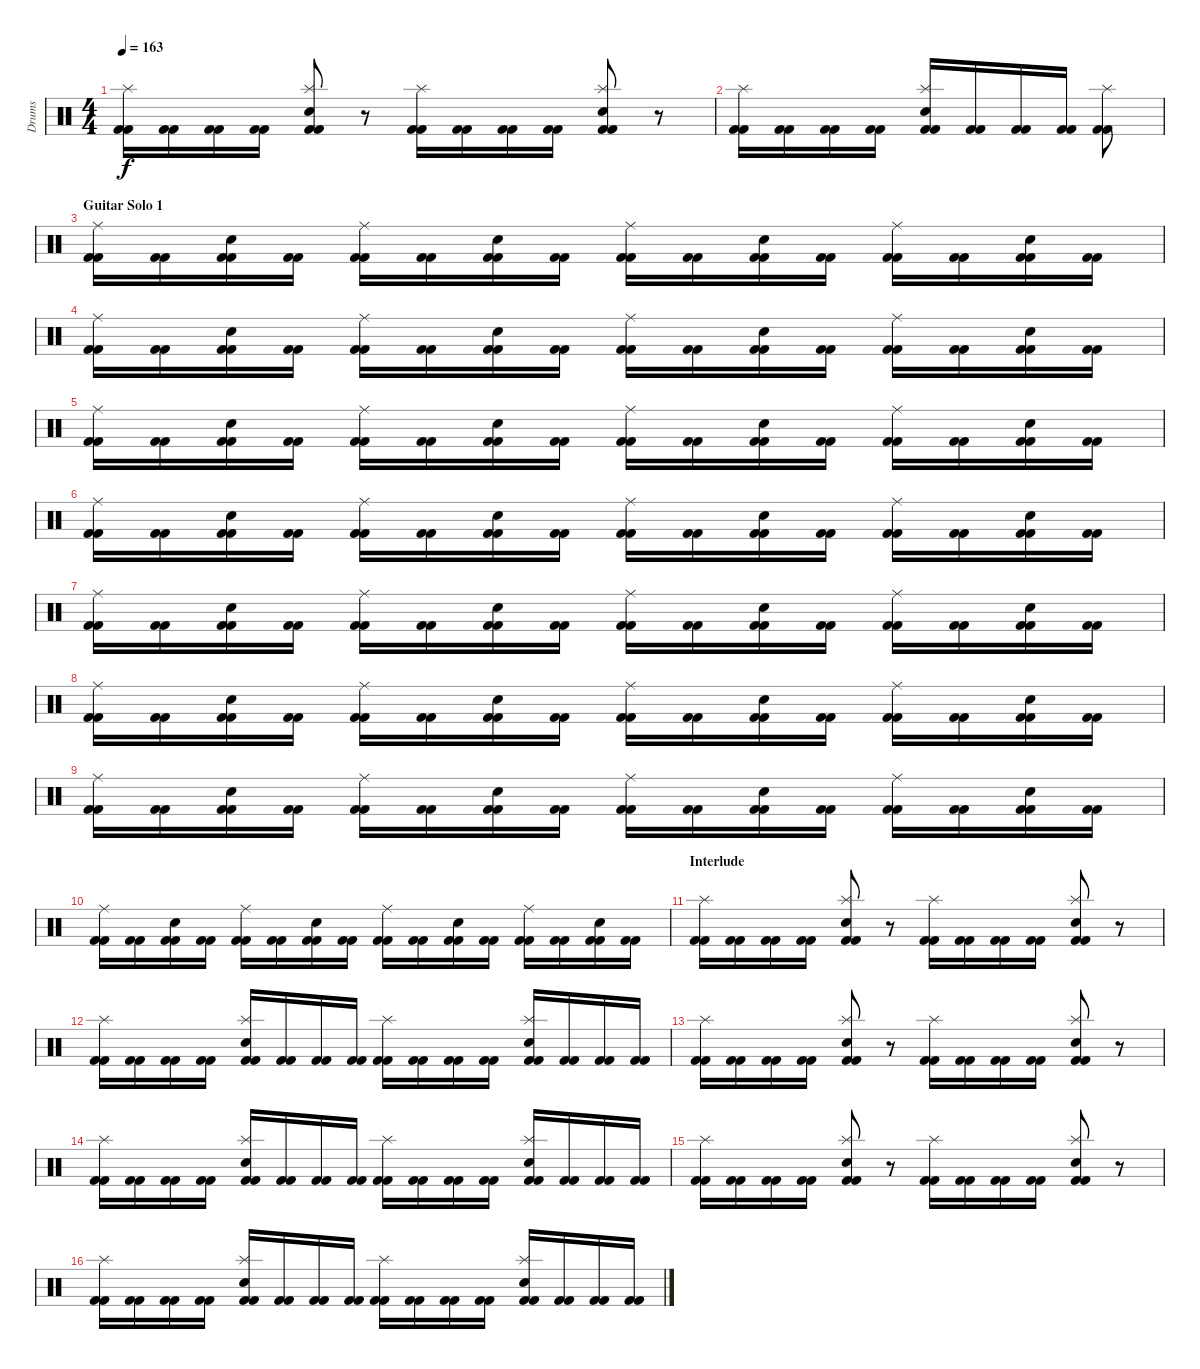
\track ("Drums" "Drums") {instrument percussion}
\staff {score}
\articulation defaults
\ts (4 4)
\tempo 163
\clef neutral
\ks c
("Kick (hit) 2" "Kick (hit) 2" "Splash (hit)").16{dy f} ("Kick (hit) 2" "Kick (hit) 2").16 ("Kick (hit) 2" "Kick (hit) 2").16 ("Kick (hit) 2" "Kick (hit) 2").16 ("Kick (hit) 2" "Kick (hit) 2" "Snare (hit) 2" "Splash (hit)").8 r.8 ("Kick (hit) 2" "Kick (hit) 2" "Splash (hit)").16 ("Kick (hit) 2" "Kick (hit) 2").16 ("Kick (hit) 2" "Kick (hit) 2").16 ("Kick (hit) 2" "Kick (hit) 2").16 ("Kick (hit) 2" "Kick (hit) 2" "Snare (hit) 2" "Splash (hit)").8 r.8 |
("Kick (hit) 2" "Kick (hit) 2" "Splash (hit)").16 ("Kick (hit) 2" "Kick (hit) 2").16 ("Kick (hit) 2" "Kick (hit) 2").16 ("Kick (hit) 2" "Kick (hit) 2").16 ("Kick (hit) 2" "Kick (hit) 2" "Snare (hit) 2" "Splash (hit)").16 ("Kick (hit) 2" "Kick (hit) 2").16 ("Kick (hit) 2" "Kick (hit) 2").16 ("Kick (hit) 2" "Kick (hit) 2").16 ("Kick (hit) 2" "Kick (hit) 2" "Splash (hit)").8 |
\section ("" "Guitar Solo 1")
("Kick (hit) 2" "Kick (hit) 2" "Ride (middle)").16 ("Kick (hit) 2" "Kick (hit) 2").16 ("Kick (hit) 2" "Kick (hit) 2" "Snare (hit) 2").16 ("Kick (hit) 2" "Kick (hit) 2").16 ("Kick (hit) 2" "Kick (hit) 2" "Ride (middle)").16 ("Kick (hit) 2" "Kick (hit) 2").16 ("Kick (hit) 2" "Kick (hit) 2" "Snare (hit) 2").16 ("Kick (hit) 2" "Kick (hit) 2").16 ("Kick (hit) 2" "Kick (hit) 2" "Ride (middle)").16 ("Kick (hit) 2" "Kick (hit) 2").16 ("Kick (hit) 2" "Kick (hit) 2" "Snare (hit) 2").16 ("Kick (hit) 2" "Kick (hit) 2").16 ("Kick (hit) 2" "Kick (hit) 2" "Ride (middle)").16 ("Kick (hit) 2" "Kick (hit) 2").16 ("Kick (hit) 2" "Kick (hit) 2" "Snare (hit) 2").16 ("Kick (hit) 2" "Kick (hit) 2").16 |
("Kick (hit) 2" "Kick (hit) 2" "Ride (middle)").16 ("Kick (hit) 2" "Kick (hit) 2").16 ("Kick (hit) 2" "Kick (hit) 2" "Snare (hit) 2").16 ("Kick (hit) 2" "Kick (hit) 2").16 ("Kick (hit) 2" "Kick (hit) 2" "Ride (middle)").16 ("Kick (hit) 2" "Kick (hit) 2").16 ("Kick (hit) 2" "Kick (hit) 2" "Snare (hit) 2").16 ("Kick (hit) 2" "Kick (hit) 2").16 ("Kick (hit) 2" "Kick (hit) 2" "Ride (middle)").16 ("Kick (hit) 2" "Kick (hit) 2").16 ("Kick (hit) 2" "Kick (hit) 2" "Snare (hit) 2").16 ("Kick (hit) 2" "Kick (hit) 2").16 ("Kick (hit) 2" "Kick (hit) 2" "Ride (middle)").16 ("Kick (hit) 2" "Kick (hit) 2").16 ("Kick (hit) 2" "Kick (hit) 2" "Snare (hit) 2").16 ("Kick (hit) 2" "Kick (hit) 2").16 |
("Kick (hit) 2" "Kick (hit) 2" "Ride (middle)").16 ("Kick (hit) 2" "Kick (hit) 2").16 ("Kick (hit) 2" "Kick (hit) 2" "Snare (hit) 2").16 ("Kick (hit) 2" "Kick (hit) 2").16 ("Kick (hit) 2" "Kick (hit) 2" "Ride (middle)").16 ("Kick (hit) 2" "Kick (hit) 2").16 ("Kick (hit) 2" "Kick (hit) 2" "Snare (hit) 2").16 ("Kick (hit) 2" "Kick (hit) 2").16 ("Kick (hit) 2" "Kick (hit) 2" "Ride (middle)").16 ("Kick (hit) 2" "Kick (hit) 2").16 ("Kick (hit) 2" "Kick (hit) 2" "Snare (hit) 2").16 ("Kick (hit) 2" "Kick (hit) 2").16 ("Kick (hit) 2" "Kick (hit) 2" "Ride (middle)").16 ("Kick (hit) 2" "Kick (hit) 2").16 ("Kick (hit) 2" "Kick (hit) 2" "Snare (hit) 2").16 ("Kick (hit) 2" "Kick (hit) 2").16 |
("Kick (hit) 2" "Kick (hit) 2" "Ride (middle)").16 ("Kick (hit) 2" "Kick (hit) 2").16 ("Kick (hit) 2" "Kick (hit) 2" "Snare (hit) 2").16 ("Kick (hit) 2" "Kick (hit) 2").16 ("Kick (hit) 2" "Kick (hit) 2" "Ride (middle)").16 ("Kick (hit) 2" "Kick (hit) 2").16 ("Kick (hit) 2" "Kick (hit) 2" "Snare (hit) 2").16 ("Kick (hit) 2" "Kick (hit) 2").16 ("Kick (hit) 2" "Kick (hit) 2" "Ride (middle)").16 ("Kick (hit) 2" "Kick (hit) 2").16 ("Kick (hit) 2" "Kick (hit) 2" "Snare (hit) 2").16 ("Kick (hit) 2" "Kick (hit) 2").16 ("Kick (hit) 2" "Kick (hit) 2" "Ride (middle)").16 ("Kick (hit) 2" "Kick (hit) 2").16 ("Kick (hit) 2" "Kick (hit) 2" "Snare (hit) 2").16 ("Kick (hit) 2" "Kick (hit) 2").16 |
("Kick (hit) 2" "Kick (hit) 2" "Ride (middle)").16 ("Kick (hit) 2" "Kick (hit) 2").16 ("Kick (hit) 2" "Kick (hit) 2" "Snare (hit) 2").16 ("Kick (hit) 2" "Kick (hit) 2").16 ("Kick (hit) 2" "Kick (hit) 2" "Ride (middle)").16 ("Kick (hit) 2" "Kick (hit) 2").16 ("Kick (hit) 2" "Kick (hit) 2" "Snare (hit) 2").16 ("Kick (hit) 2" "Kick (hit) 2").16 ("Kick (hit) 2" "Kick (hit) 2" "Ride (middle)").16 ("Kick (hit) 2" "Kick (hit) 2").16 ("Kick (hit) 2" "Kick (hit) 2" "Snare (hit) 2").16 ("Kick (hit) 2" "Kick (hit) 2").16 ("Kick (hit) 2" "Kick (hit) 2" "Ride (middle)").16 ("Kick (hit) 2" "Kick (hit) 2").16 ("Kick (hit) 2" "Kick (hit) 2" "Snare (hit) 2").16 ("Kick (hit) 2" "Kick (hit) 2").16 |
("Kick (hit) 2" "Kick (hit) 2" "Ride (middle)").16 ("Kick (hit) 2" "Kick (hit) 2").16 ("Kick (hit) 2" "Kick (hit) 2" "Snare (hit) 2").16 ("Kick (hit) 2" "Kick (hit) 2").16 ("Kick (hit) 2" "Kick (hit) 2" "Ride (middle)").16 ("Kick (hit) 2" "Kick (hit) 2").16 ("Kick (hit) 2" "Kick (hit) 2" "Snare (hit) 2").16 ("Kick (hit) 2" "Kick (hit) 2").16 ("Kick (hit) 2" "Kick (hit) 2" "Ride (middle)").16 ("Kick (hit) 2" "Kick (hit) 2").16 ("Kick (hit) 2" "Kick (hit) 2" "Snare (hit) 2").16 ("Kick (hit) 2" "Kick (hit) 2").16 ("Kick (hit) 2" "Kick (hit) 2" "Ride (middle)").16 ("Kick (hit) 2" "Kick (hit) 2").16 ("Kick (hit) 2" "Kick (hit) 2" "Snare (hit) 2").16 ("Kick (hit) 2" "Kick (hit) 2").16 |
("Kick (hit) 2" "Kick (hit) 2" "Ride (middle)").16 ("Kick (hit) 2" "Kick (hit) 2").16 ("Kick (hit) 2" "Kick (hit) 2" "Snare (hit) 2").16 ("Kick (hit) 2" "Kick (hit) 2").16 ("Kick (hit) 2" "Kick (hit) 2" "Ride (middle)").16 ("Kick (hit) 2" "Kick (hit) 2").16 ("Kick (hit) 2" "Kick (hit) 2" "Snare (hit) 2").16 ("Kick (hit) 2" "Kick (hit) 2").16 ("Kick (hit) 2" "Kick (hit) 2" "Ride (middle)").16 ("Kick (hit) 2" "Kick (hit) 2").16 ("Kick (hit) 2" "Kick (hit) 2" "Snare (hit) 2").16 ("Kick (hit) 2" "Kick (hit) 2").16 ("Kick (hit) 2" "Kick (hit) 2" "Ride (middle)").16 ("Kick (hit) 2" "Kick (hit) 2").16 ("Kick (hit) 2" "Kick (hit) 2" "Snare (hit) 2").16 ("Kick (hit) 2" "Kick (hit) 2").16 |
("Kick (hit) 2" "Kick (hit) 2" "Ride (middle)").16 ("Kick (hit) 2" "Kick (hit) 2").16 ("Kick (hit) 2" "Kick (hit) 2" "Snare (hit) 2").16 ("Kick (hit) 2" "Kick (hit) 2").16 ("Kick (hit) 2" "Kick (hit) 2" "Ride (middle)").16 ("Kick (hit) 2" "Kick (hit) 2").16 ("Kick (hit) 2" "Kick (hit) 2" "Snare (hit) 2").16 ("Kick (hit) 2" "Kick (hit) 2").16 ("Kick (hit) 2" "Kick (hit) 2" "Ride (middle)").16 ("Kick (hit) 2" "Kick (hit) 2").16 ("Kick (hit) 2" "Kick (hit) 2" "Snare (hit) 2").16 ("Kick (hit) 2" "Kick (hit) 2").16 ("Kick (hit) 2" "Kick (hit) 2" "Ride (middle)").16 ("Kick (hit) 2" "Kick (hit) 2").16 ("Kick (hit) 2" "Kick (hit) 2" "Snare (hit) 2").16 ("Kick (hit) 2" "Kick (hit) 2").16 |
\section ("" "Interlude")
("Kick (hit) 2" "Kick (hit) 2" "Splash (hit)").16 ("Kick (hit) 2" "Kick (hit) 2").16 ("Kick (hit) 2" "Kick (hit) 2").16 ("Kick (hit) 2" "Kick (hit) 2").16 ("Kick (hit) 2" "Kick (hit) 2" "Snare (hit) 2" "Splash (hit)").8 r.8 ("Kick (hit) 2" "Kick (hit) 2" "Splash (hit)").16 ("Kick (hit) 2" "Kick (hit) 2").16 ("Kick (hit) 2" "Kick (hit) 2").16 ("Kick (hit) 2" "Kick (hit) 2").16 ("Kick (hit) 2" "Kick (hit) 2" "Snare (hit) 2" "Splash (hit)").8 r.8 |
("Kick (hit) 2" "Kick (hit) 2" "Splash (hit)").16 ("Kick (hit) 2" "Kick (hit) 2").16 ("Kick (hit) 2" "Kick (hit) 2").16 ("Kick (hit) 2" "Kick (hit) 2").16 ("Kick (hit) 2" "Kick (hit) 2" "Snare (hit) 2" "Splash (hit)").16 ("Kick (hit) 2" "Kick (hit) 2").16 ("Kick (hit) 2" "Kick (hit) 2").16 ("Kick (hit) 2" "Kick (hit) 2").16 ("Kick (hit) 2" "Kick (hit) 2" "Splash (hit)").16 ("Kick (hit) 2" "Kick (hit) 2").16 ("Kick (hit) 2" "Kick (hit) 2").16 ("Kick (hit) 2" "Kick (hit) 2").16 ("Kick (hit) 2" "Kick (hit) 2" "Snare (hit) 2" "Splash (hit)").16 ("Kick (hit) 2" "Kick (hit) 2").16 ("Kick (hit) 2" "Kick (hit) 2").16 ("Kick (hit) 2" "Kick (hit) 2").16 |
("Kick (hit) 2" "Kick (hit) 2" "Splash (hit)").16 ("Kick (hit) 2" "Kick (hit) 2").16 ("Kick (hit) 2" "Kick (hit) 2").16 ("Kick (hit) 2" "Kick (hit) 2").16 ("Kick (hit) 2" "Kick (hit) 2" "Snare (hit) 2" "Splash (hit)").8 r.8 ("Kick (hit) 2" "Kick (hit) 2" "Splash (hit)").16 ("Kick (hit) 2" "Kick (hit) 2").16 ("Kick (hit) 2" "Kick (hit) 2").16 ("Kick (hit) 2" "Kick (hit) 2").16 ("Kick (hit) 2" "Kick (hit) 2" "Snare (hit) 2" "Splash (hit)").8 r.8 |
("Kick (hit) 2" "Kick (hit) 2" "Splash (hit)").16 ("Kick (hit) 2" "Kick (hit) 2").16 ("Kick (hit) 2" "Kick (hit) 2").16 ("Kick (hit) 2" "Kick (hit) 2").16 ("Kick (hit) 2" "Kick (hit) 2" "Snare (hit) 2" "Splash (hit)").16 ("Kick (hit) 2" "Kick (hit) 2").16 ("Kick (hit) 2" "Kick (hit) 2").16 ("Kick (hit) 2" "Kick (hit) 2").16 ("Kick (hit) 2" "Kick (hit) 2" "Splash (hit)").16 ("Kick (hit) 2" "Kick (hit) 2").16 ("Kick (hit) 2" "Kick (hit) 2").16 ("Kick (hit) 2" "Kick (hit) 2").16 ("Kick (hit) 2" "Kick (hit) 2" "Snare (hit) 2" "Splash (hit)").16 ("Kick (hit) 2" "Kick (hit) 2").16 ("Kick (hit) 2" "Kick (hit) 2").16 ("Kick (hit) 2" "Kick (hit) 2").16 |
("Kick (hit) 2" "Kick (hit) 2" "Splash (hit)").16 ("Kick (hit) 2" "Kick (hit) 2").16 ("Kick (hit) 2" "Kick (hit) 2").16 ("Kick (hit) 2" "Kick (hit) 2").16 ("Kick (hit) 2" "Kick (hit) 2" "Snare (hit) 2" "Splash (hit)").8 r.8 ("Kick (hit) 2" "Kick (hit) 2" "Splash (hit)").16 ("Kick (hit) 2" "Kick (hit) 2").16 ("Kick (hit) 2" "Kick (hit) 2").16 ("Kick (hit) 2" "Kick (hit) 2").16 ("Kick (hit) 2" "Kick (hit) 2" "Snare (hit) 2" "Splash (hit)").8 r.8 |
("Kick (hit) 2" "Kick (hit) 2" "Splash (hit)").16 ("Kick (hit) 2" "Kick (hit) 2").16 ("Kick (hit) 2" "Kick (hit) 2").16 ("Kick (hit) 2" "Kick (hit) 2").16 ("Kick (hit) 2" "Kick (hit) 2" "Snare (hit) 2" "Splash (hit)").16 ("Kick (hit) 2" "Kick (hit) 2").16 ("Kick (hit) 2" "Kick (hit) 2").16 ("Kick (hit) 2" "Kick (hit) 2").16 ("Kick (hit) 2" "Kick (hit) 2" "Splash (hit)").16 ("Kick (hit) 2" "Kick (hit) 2").16 ("Kick (hit) 2" "Kick (hit) 2").16 ("Kick (hit) 2" "Kick (hit) 2").16 ("Kick (hit) 2" "Kick (hit) 2" "Snare (hit) 2" "Splash (hit)").16 ("Kick (hit) 2" "Kick (hit) 2").16 ("Kick (hit) 2" "Kick (hit) 2").16 ("Kick (hit) 2" "Kick (hit) 2").16
